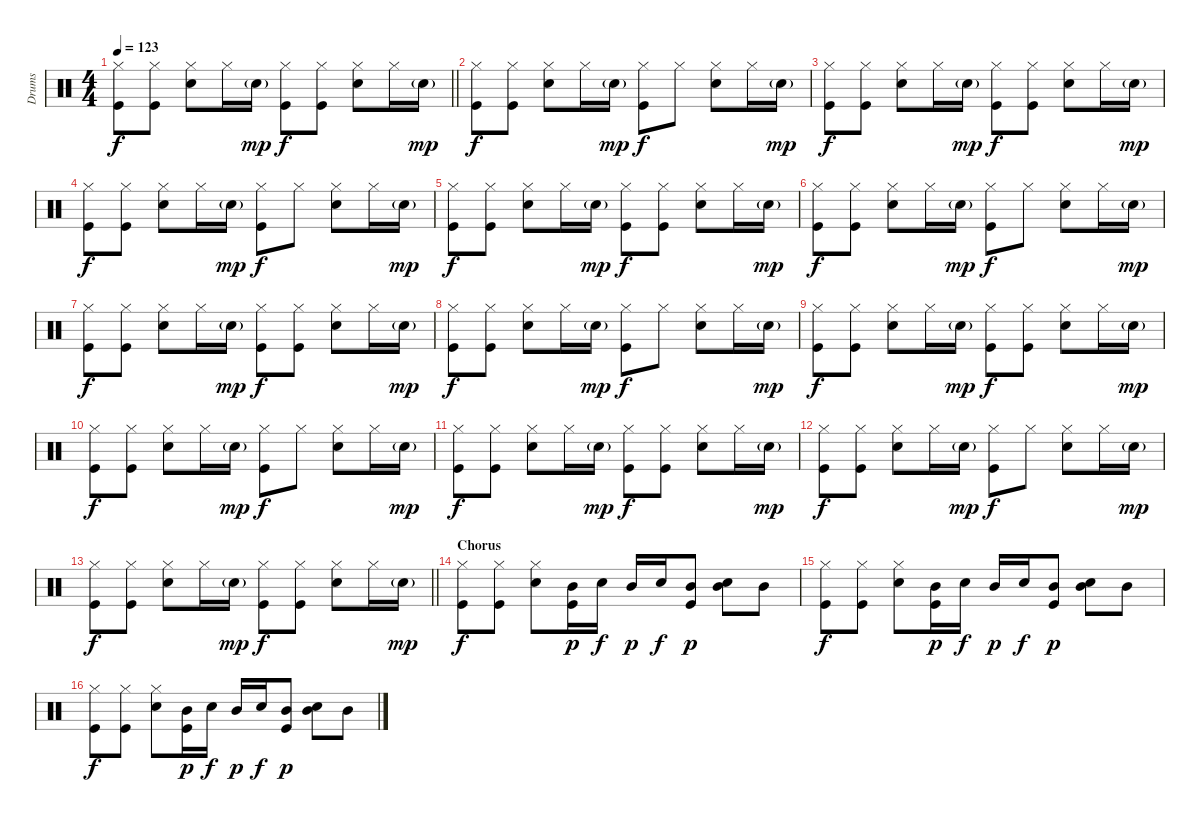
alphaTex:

\track ("Drums" "Drums") {instrument percussion}
\staff {score}
\articulation defaults
\ts (4 4)
\tempo 123
\clef neutral
\barLineRight lightlight
\ks c
("Hi-Hat (closed)" "Kick (hit)").8{dy f} ("Hi-Hat (closed)" "Kick (hit)").8 ("Hi-Hat (closed)" "Snare (hit) 2").8 "Hi-Hat (closed)".16 "Snare (hit) 2"{g}.16{dy mp} ("Hi-Hat (closed)" "Kick (hit)").8{dy f} ("Hi-Hat (closed)" "Kick (hit)").8 ("Hi-Hat (closed)" "Snare (hit) 2").8 "Hi-Hat (closed)".16 "Snare (hit) 2"{g}.16{dy mp} |
("Hi-Hat (closed)" "Kick (hit)").8{dy f} ("Hi-Hat (closed)" "Kick (hit)").8 ("Hi-Hat (closed)" "Snare (hit) 2").8 "Hi-Hat (closed)".16 "Snare (hit) 2"{g}.16{dy mp} ("Hi-Hat (closed)" "Kick (hit)").8{dy f} "Hi-Hat (closed)".8 ("Hi-Hat (closed)" "Snare (hit) 2").8 "Hi-Hat (closed)".16 "Snare (hit) 2"{g}.16{dy mp} |
("Hi-Hat (closed)" "Kick (hit)").8{dy f} ("Hi-Hat (closed)" "Kick (hit)").8 ("Hi-Hat (closed)" "Snare (hit) 2").8 "Hi-Hat (closed)".16 "Snare (hit) 2"{g}.16{dy mp} ("Hi-Hat (closed)" "Kick (hit)").8{dy f} ("Hi-Hat (closed)" "Kick (hit)").8 ("Hi-Hat (closed)" "Snare (hit) 2").8 "Hi-Hat (closed)".16 "Snare (hit) 2"{g}.16{dy mp} |
("Hi-Hat (closed)" "Kick (hit)").8{dy f} ("Hi-Hat (closed)" "Kick (hit)").8 ("Hi-Hat (closed)" "Snare (hit) 2").8 "Hi-Hat (closed)".16 "Snare (hit) 2"{g}.16{dy mp} ("Hi-Hat (closed)" "Kick (hit)").8{dy f} "Hi-Hat (closed)".8 ("Hi-Hat (closed)" "Snare (hit) 2").8 "Hi-Hat (closed)".16 "Snare (hit) 2"{g}.16{dy mp} |
("Hi-Hat (closed)" "Kick (hit)").8{dy f} ("Hi-Hat (closed)" "Kick (hit)").8 ("Hi-Hat (closed)" "Snare (hit) 2").8 "Hi-Hat (closed)".16 "Snare (hit) 2"{g}.16{dy mp} ("Hi-Hat (closed)" "Kick (hit)").8{dy f} ("Hi-Hat (closed)" "Kick (hit)").8 ("Hi-Hat (closed)" "Snare (hit) 2").8 "Hi-Hat (closed)".16 "Snare (hit) 2"{g}.16{dy mp} |
("Hi-Hat (closed)" "Kick (hit)").8{dy f} ("Hi-Hat (closed)" "Kick (hit)").8 ("Hi-Hat (closed)" "Snare (hit) 2").8 "Hi-Hat (closed)".16 "Snare (hit) 2"{g}.16{dy mp} ("Hi-Hat (closed)" "Kick (hit)").8{dy f} "Hi-Hat (closed)".8 ("Hi-Hat (closed)" "Snare (hit) 2").8 "Hi-Hat (closed)".16 "Snare (hit) 2"{g}.16{dy mp} |
("Hi-Hat (closed)" "Kick (hit)").8{dy f} ("Hi-Hat (closed)" "Kick (hit)").8 ("Hi-Hat (closed)" "Snare (hit) 2").8 "Hi-Hat (closed)".16 "Snare (hit) 2"{g}.16{dy mp} ("Hi-Hat (closed)" "Kick (hit)").8{dy f} ("Hi-Hat (closed)" "Kick (hit)").8 ("Hi-Hat (closed)" "Snare (hit) 2").8 "Hi-Hat (closed)".16 "Snare (hit) 2"{g}.16{dy mp} |
("Hi-Hat (closed)" "Kick (hit)").8{dy f} ("Hi-Hat (closed)" "Kick (hit)").8 ("Hi-Hat (closed)" "Snare (hit) 2").8 "Hi-Hat (closed)".16 "Snare (hit) 2"{g}.16{dy mp} ("Hi-Hat (closed)" "Kick (hit)").8{dy f} "Hi-Hat (closed)".8 ("Hi-Hat (closed)" "Snare (hit) 2").8 "Hi-Hat (closed)".16 "Snare (hit) 2"{g}.16{dy mp} |
("Hi-Hat (closed)" "Kick (hit)").8{dy f} ("Hi-Hat (closed)" "Kick (hit)").8 ("Hi-Hat (closed)" "Snare (hit) 2").8 "Hi-Hat (closed)".16 "Snare (hit) 2"{g}.16{dy mp} ("Hi-Hat (closed)" "Kick (hit)").8{dy f} ("Hi-Hat (closed)" "Kick (hit)").8 ("Hi-Hat (closed)" "Snare (hit) 2").8 "Hi-Hat (closed)".16 "Snare (hit) 2"{g}.16{dy mp} |
("Hi-Hat (closed)" "Kick (hit)").8{dy f} ("Hi-Hat (closed)" "Kick (hit)").8 ("Hi-Hat (closed)" "Snare (hit) 2").8 "Hi-Hat (closed)".16 "Snare (hit) 2"{g}.16{dy mp} ("Hi-Hat (closed)" "Kick (hit)").8{dy f} "Hi-Hat (closed)".8 ("Hi-Hat (closed)" "Snare (hit) 2").8 "Hi-Hat (closed)".16 "Snare (hit) 2"{g}.16{dy mp} |
("Hi-Hat (closed)" "Kick (hit)").8{dy f} ("Hi-Hat (closed)" "Kick (hit)").8 ("Hi-Hat (closed)" "Snare (hit) 2").8 "Hi-Hat (closed)".16 "Snare (hit) 2"{g}.16{dy mp} ("Hi-Hat (closed)" "Kick (hit)").8{dy f} ("Hi-Hat (closed)" "Kick (hit)").8 ("Hi-Hat (closed)" "Snare (hit) 2").8 "Hi-Hat (closed)".16 "Snare (hit) 2"{g}.16{dy mp} |
("Hi-Hat (closed)" "Kick (hit)").8{dy f} ("Hi-Hat (closed)" "Kick (hit)").8 ("Hi-Hat (closed)" "Snare (hit) 2").8 "Hi-Hat (closed)".16 "Snare (hit) 2"{g}.16{dy mp} ("Hi-Hat (closed)" "Kick (hit)").8{dy f} "Hi-Hat (closed)".8 ("Hi-Hat (closed)" "Snare (hit) 2").8 "Hi-Hat (closed)".16 "Snare (hit) 2"{g}.16{dy mp} |
\barLineRight lightlight
("Hi-Hat (closed)" "Kick (hit)").8{dy f} ("Hi-Hat (closed)" "Kick (hit)").8 ("Hi-Hat (closed)" "Snare (hit) 2").8 "Hi-Hat (closed)".16 "Snare (hit) 2"{g}.16{dy mp} ("Hi-Hat (closed)" "Kick (hit)").8{dy f} ("Hi-Hat (closed)" "Kick (hit)").8 ("Hi-Hat (closed)" "Snare (hit) 2").8 "Hi-Hat (closed)".16 "Snare (hit) 2"{g}.16{dy mp} |
\section ("" "Chorus")
("Hi-Hat (closed)" "Kick (hit)").8{dy f} ("Hi-Hat (closed)" "Kick (hit)").8 ("Hi-Hat (closed)" "Snare (hit) 2").8 ("Mid Tom (hit)" "Kick (hit)").16{dy p} "Snare (hit) 2".16{dy f} "Mid Tom (hit)".16{dy p} "Snare (hit) 2".16{dy f} ("Mid Tom (hit)" "Kick (hit)").8{dy p} ("Snare (hit) 2" "Mid Tom (hit)").8 "Mid Tom (hit)".8 |
("Hi-Hat (closed)" "Kick (hit)").8{dy f} ("Hi-Hat (closed)" "Kick (hit)").8 ("Hi-Hat (closed)" "Snare (hit) 2").8 ("Mid Tom (hit)" "Kick (hit)").16{dy p} "Snare (hit) 2".16{dy f} "Mid Tom (hit)".16{dy p} "Snare (hit) 2".16{dy f} ("Mid Tom (hit)" "Kick (hit)").8{dy p} ("Snare (hit) 2" "Mid Tom (hit)").8 "Mid Tom (hit)".8 |
("Hi-Hat (closed)" "Kick (hit)").8{dy f} ("Hi-Hat (closed)" "Kick (hit)").8 ("Hi-Hat (closed)" "Snare (hit) 2").8 ("Mid Tom (hit)" "Kick (hit)").16{dy p} "Snare (hit) 2".16{dy f} "Mid Tom (hit)".16{dy p} "Snare (hit) 2".16{dy f} ("Mid Tom (hit)" "Kick (hit)").8{dy p} ("Snare (hit) 2" "Mid Tom (hit)").8 "Mid Tom (hit)".8
